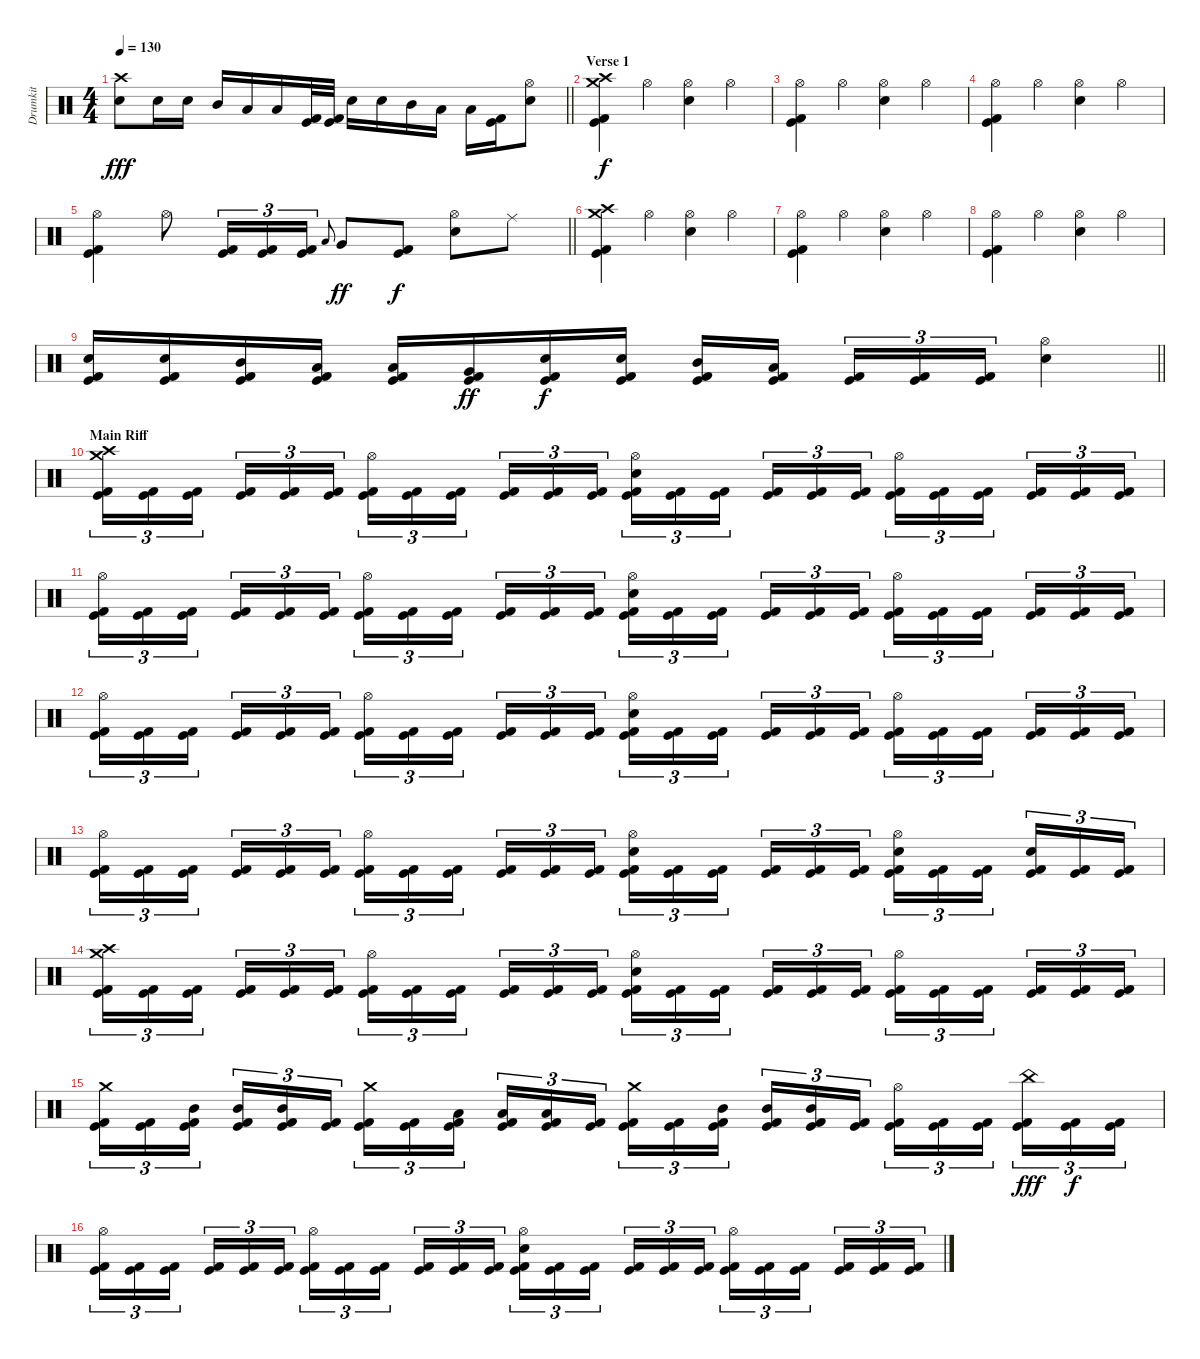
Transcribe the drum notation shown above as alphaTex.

\track ("Drumkit" "Drumkit") {instrument percussion}
\staff {score}
\articulation defaults
\ts (4 4)
\tempo 130
\clef neutral
\barLineRight lightlight
\ks c
("Crash high (hit)" "Electric Snare (hit)").8{dy fff} "Electric Snare (hit)".16 "Electric Snare (hit)".16 "Mid Tom (hit)".16 "Low Tom (hit)".16 "Low Tom (hit)".16 ("Kick (hit)" "Kick (hit) 2").32 ("Kick (hit)" "Kick (hit) 2").32 "Electric Snare (hit)".16 "Electric Snare (hit)".16 "Mid Tom (hit)".16 "Low Tom (hit)".16 "Low Tom (hit)".16 ("Kick (hit)" "Kick (hit) 2").16 ("Hi-Hat (open)" "Electric Snare (hit)").8 |
\section ("" "Verse 1")
("Crash high (hit)" "Crash medium (hit)" "Kick (hit)" "Kick (hit) 2").4{dy f} "Hi-Hat (open)".4 ("Hi-Hat (open)" "Electric Snare (hit)").4 "Hi-Hat (open)".4 |
("Hi-Hat (open)" "Kick (hit)" "Kick (hit) 2").4 "Hi-Hat (open)".4 ("Hi-Hat (open)" "Electric Snare (hit)").4 "Hi-Hat (open)".4 |
("Hi-Hat (open)" "Kick (hit)" "Kick (hit) 2").4 "Hi-Hat (open)".4 ("Hi-Hat (open)" "Electric Snare (hit)").4 "Hi-Hat (open)".4 |
\barLineRight lightlight
("Hi-Hat (open)" "Kick (hit)" "Kick (hit) 2").4 "Hi-Hat (open)".8 ("Kick (hit)" "Kick (hit) 2").16{tu (3 2)} ("Kick (hit)" "Kick (hit) 2").16{tu (3 2)} ("Kick (hit)" "Kick (hit) 2").16{tu (3 2)} "Low Tom (hit)".8{gr onbeat} "Very Low Tom (hit)".8{dy ff} ("Kick (hit)" "Kick (hit) 2").8{dy f} ("Hi-Hat (open)" "Electric Snare (hit)").8 "Ride (middle)".8 |
("Crash high (hit)" "Crash medium (hit)" "Kick (hit)" "Kick (hit) 2").4 "Hi-Hat (open)".4 ("Hi-Hat (open)" "Electric Snare (hit)").4 "Hi-Hat (open)".4 |
("Hi-Hat (open)" "Kick (hit)" "Kick (hit) 2").4 "Hi-Hat (open)".4 ("Hi-Hat (open)" "Electric Snare (hit)").4 "Hi-Hat (open)".4 |
("Hi-Hat (open)" "Kick (hit)" "Kick (hit) 2").4 "Hi-Hat (open)".4 ("Hi-Hat (open)" "Electric Snare (hit)").4 "Hi-Hat (open)".4 |
\barLineRight lightlight
("Electric Snare (hit)" "Kick (hit)" "Kick (hit) 2").16 ("Electric Snare (hit)" "Kick (hit)" "Kick (hit) 2").16 ("Mid Tom (hit)" "Kick (hit)" "Kick (hit) 2").16 ("Low Tom (hit)" "Kick (hit)" "Kick (hit) 2").16 ("Low Tom (hit)" "Kick (hit)" "Kick (hit) 2").16 ("Very Low Tom (hit)" "Kick (hit)" "Kick (hit) 2").16{dy ff} ("Electric Snare (hit)" "Kick (hit)" "Kick (hit) 2").16{dy f} ("Electric Snare (hit)" "Kick (hit)" "Kick (hit) 2").16 ("Mid Tom (hit)" "Kick (hit)" "Kick (hit) 2").16 ("Low Tom (hit)" "Kick (hit)" "Kick (hit) 2").16{beam splitsecondary} ("Kick (hit)" "Kick (hit) 2").16{tu (3 2)} ("Kick (hit)" "Kick (hit) 2").16{tu (3 2)} ("Kick (hit)" "Kick (hit) 2").16{tu (3 2)} ("Hi-Hat (open)" "Electric Snare (hit)").4 |
\section ("" "Main Riff")
("Crash high (hit)" "Crash medium (hit)" "Kick (hit)" "Kick (hit) 2").16{tu (3 2)} ("Kick (hit)" "Kick (hit) 2").16{tu (3 2)} ("Kick (hit)" "Kick (hit) 2").16{tu (3 2) beam splitsecondary} ("Kick (hit)" "Kick (hit) 2").16{tu (3 2)} ("Kick (hit)" "Kick (hit) 2").16{tu (3 2)} ("Kick (hit)" "Kick (hit) 2").16{tu (3 2)} ("Hi-Hat (open)" "Kick (hit)" "Kick (hit) 2").16{tu (3 2)} ("Kick (hit)" "Kick (hit) 2").16{tu (3 2)} ("Kick (hit)" "Kick (hit) 2").16{tu (3 2) beam splitsecondary} ("Kick (hit)" "Kick (hit) 2").16{tu (3 2)} ("Kick (hit)" "Kick (hit) 2").16{tu (3 2)} ("Kick (hit)" "Kick (hit) 2").16{tu (3 2)} ("Hi-Hat (open)" "Electric Snare (hit)" "Kick (hit)" "Kick (hit) 2").16{tu (3 2)} ("Kick (hit)" "Kick (hit) 2").16{tu (3 2)} ("Kick (hit)" "Kick (hit) 2").16{tu (3 2) beam splitsecondary} ("Kick (hit)" "Kick (hit) 2").16{tu (3 2)} ("Kick (hit)" "Kick (hit) 2").16{tu (3 2)} ("Kick (hit)" "Kick (hit) 2").16{tu (3 2)} ("Hi-Hat (open)" "Kick (hit)" "Kick (hit) 2").16{tu (3 2)} ("Kick (hit)" "Kick (hit) 2").16{tu (3 2)} ("Kick (hit)" "Kick (hit) 2").16{tu (3 2) beam splitsecondary} ("Kick (hit)" "Kick (hit) 2").16{tu (3 2)} ("Kick (hit)" "Kick (hit) 2").16{tu (3 2)} ("Kick (hit)" "Kick (hit) 2").16{tu (3 2)} |
("Hi-Hat (open)" "Kick (hit)" "Kick (hit) 2").16{tu (3 2)} ("Kick (hit)" "Kick (hit) 2").16{tu (3 2)} ("Kick (hit)" "Kick (hit) 2").16{tu (3 2) beam splitsecondary} ("Kick (hit)" "Kick (hit) 2").16{tu (3 2)} ("Kick (hit)" "Kick (hit) 2").16{tu (3 2)} ("Kick (hit)" "Kick (hit) 2").16{tu (3 2)} ("Hi-Hat (open)" "Kick (hit)" "Kick (hit) 2").16{tu (3 2)} ("Kick (hit)" "Kick (hit) 2").16{tu (3 2)} ("Kick (hit)" "Kick (hit) 2").16{tu (3 2) beam splitsecondary} ("Kick (hit)" "Kick (hit) 2").16{tu (3 2)} ("Kick (hit)" "Kick (hit) 2").16{tu (3 2)} ("Kick (hit)" "Kick (hit) 2").16{tu (3 2)} ("Hi-Hat (open)" "Electric Snare (hit)" "Kick (hit)" "Kick (hit) 2").16{tu (3 2)} ("Kick (hit)" "Kick (hit) 2").16{tu (3 2)} ("Kick (hit)" "Kick (hit) 2").16{tu (3 2) beam splitsecondary} ("Kick (hit)" "Kick (hit) 2").16{tu (3 2)} ("Kick (hit)" "Kick (hit) 2").16{tu (3 2)} ("Kick (hit)" "Kick (hit) 2").16{tu (3 2)} ("Hi-Hat (open)" "Kick (hit)" "Kick (hit) 2").16{tu (3 2)} ("Kick (hit)" "Kick (hit) 2").16{tu (3 2)} ("Kick (hit)" "Kick (hit) 2").16{tu (3 2) beam splitsecondary} ("Kick (hit)" "Kick (hit) 2").16{tu (3 2)} ("Kick (hit)" "Kick (hit) 2").16{tu (3 2)} ("Kick (hit)" "Kick (hit) 2").16{tu (3 2)} |
("Hi-Hat (open)" "Kick (hit)" "Kick (hit) 2").16{tu (3 2)} ("Kick (hit)" "Kick (hit) 2").16{tu (3 2)} ("Kick (hit)" "Kick (hit) 2").16{tu (3 2) beam splitsecondary} ("Kick (hit)" "Kick (hit) 2").16{tu (3 2)} ("Kick (hit)" "Kick (hit) 2").16{tu (3 2)} ("Kick (hit)" "Kick (hit) 2").16{tu (3 2)} ("Hi-Hat (open)" "Kick (hit)" "Kick (hit) 2").16{tu (3 2)} ("Kick (hit)" "Kick (hit) 2").16{tu (3 2)} ("Kick (hit)" "Kick (hit) 2").16{tu (3 2) beam splitsecondary} ("Kick (hit)" "Kick (hit) 2").16{tu (3 2)} ("Kick (hit)" "Kick (hit) 2").16{tu (3 2)} ("Kick (hit)" "Kick (hit) 2").16{tu (3 2)} ("Hi-Hat (open)" "Electric Snare (hit)" "Kick (hit)" "Kick (hit) 2").16{tu (3 2)} ("Kick (hit)" "Kick (hit) 2").16{tu (3 2)} ("Kick (hit)" "Kick (hit) 2").16{tu (3 2) beam splitsecondary} ("Kick (hit)" "Kick (hit) 2").16{tu (3 2)} ("Kick (hit)" "Kick (hit) 2").16{tu (3 2)} ("Kick (hit)" "Kick (hit) 2").16{tu (3 2)} ("Hi-Hat (open)" "Kick (hit)" "Kick (hit) 2").16{tu (3 2)} ("Kick (hit)" "Kick (hit) 2").16{tu (3 2)} ("Kick (hit)" "Kick (hit) 2").16{tu (3 2) beam splitsecondary} ("Kick (hit)" "Kick (hit) 2").16{tu (3 2)} ("Kick (hit)" "Kick (hit) 2").16{tu (3 2)} ("Kick (hit)" "Kick (hit) 2").16{tu (3 2)} |
("Hi-Hat (open)" "Kick (hit)" "Kick (hit) 2").16{tu (3 2)} ("Kick (hit)" "Kick (hit) 2").16{tu (3 2)} ("Kick (hit)" "Kick (hit) 2").16{tu (3 2) beam splitsecondary} ("Kick (hit)" "Kick (hit) 2").16{tu (3 2)} ("Kick (hit)" "Kick (hit) 2").16{tu (3 2)} ("Kick (hit)" "Kick (hit) 2").16{tu (3 2)} ("Hi-Hat (open)" "Kick (hit)" "Kick (hit) 2").16{tu (3 2)} ("Kick (hit)" "Kick (hit) 2").16{tu (3 2)} ("Kick (hit)" "Kick (hit) 2").16{tu (3 2) beam splitsecondary} ("Kick (hit)" "Kick (hit) 2").16{tu (3 2)} ("Kick (hit)" "Kick (hit) 2").16{tu (3 2)} ("Kick (hit)" "Kick (hit) 2").16{tu (3 2)} ("Hi-Hat (open)" "Electric Snare (hit)" "Kick (hit)" "Kick (hit) 2").16{tu (3 2)} ("Kick (hit)" "Kick (hit) 2").16{tu (3 2)} ("Kick (hit)" "Kick (hit) 2").16{tu (3 2) beam splitsecondary} ("Kick (hit)" "Kick (hit) 2").16{tu (3 2)} ("Kick (hit)" "Kick (hit) 2").16{tu (3 2)} ("Kick (hit)" "Kick (hit) 2").16{tu (3 2)} ("Hi-Hat (open)" "Electric Snare (hit)" "Kick (hit)" "Kick (hit) 2").16{tu (3 2)} ("Kick (hit)" "Kick (hit) 2").16{tu (3 2)} ("Kick (hit)" "Kick (hit) 2").16{tu (3 2) beam splitsecondary} ("Electric Snare (hit)" "Kick (hit)" "Kick (hit) 2").16{tu (3 2)} ("Kick (hit)" "Kick (hit) 2").16{tu (3 2)} ("Kick (hit)" "Kick (hit) 2").16{tu (3 2)} |
("Crash high (hit)" "Crash medium (hit)" "Kick (hit)" "Kick (hit) 2").16{tu (3 2)} ("Kick (hit)" "Kick (hit) 2").16{tu (3 2)} ("Kick (hit)" "Kick (hit) 2").16{tu (3 2) beam splitsecondary} ("Kick (hit)" "Kick (hit) 2").16{tu (3 2)} ("Kick (hit)" "Kick (hit) 2").16{tu (3 2)} ("Kick (hit)" "Kick (hit) 2").16{tu (3 2)} ("Hi-Hat (open)" "Kick (hit)" "Kick (hit) 2").16{tu (3 2)} ("Kick (hit)" "Kick (hit) 2").16{tu (3 2)} ("Kick (hit)" "Kick (hit) 2").16{tu (3 2) beam splitsecondary} ("Kick (hit)" "Kick (hit) 2").16{tu (3 2)} ("Kick (hit)" "Kick (hit) 2").16{tu (3 2)} ("Kick (hit)" "Kick (hit) 2").16{tu (3 2)} ("Hi-Hat (open)" "Electric Snare (hit)" "Kick (hit)" "Kick (hit) 2").16{tu (3 2)} ("Kick (hit)" "Kick (hit) 2").16{tu (3 2)} ("Kick (hit)" "Kick (hit) 2").16{tu (3 2) beam splitsecondary} ("Kick (hit)" "Kick (hit) 2").16{tu (3 2)} ("Kick (hit)" "Kick (hit) 2").16{tu (3 2)} ("Kick (hit)" "Kick (hit) 2").16{tu (3 2)} ("Hi-Hat (open)" "Kick (hit)" "Kick (hit) 2").16{tu (3 2)} ("Kick (hit)" "Kick (hit) 2").16{tu (3 2)} ("Kick (hit)" "Kick (hit) 2").16{tu (3 2) beam splitsecondary} ("Kick (hit)" "Kick (hit) 2").16{tu (3 2)} ("Kick (hit)" "Kick (hit) 2").16{tu (3 2)} ("Kick (hit)" "Kick (hit) 2").16{tu (3 2)} |
("Crash medium (hit)" "Kick (hit)" "Kick (hit) 2").16{tu (3 2)} ("Kick (hit)" "Kick (hit) 2").16{tu (3 2)} ("Mid Tom (hit)" "Kick (hit)" "Kick (hit) 2").16{tu (3 2) beam splitsecondary} ("Mid Tom (hit)" "Kick (hit)" "Kick (hit) 2").16{tu (3 2)} ("Mid Tom (hit)" "Kick (hit)" "Kick (hit) 2").16{tu (3 2)} ("Kick (hit)" "Kick (hit) 2").16{tu (3 2)} ("Crash medium (hit)" "Kick (hit)" "Kick (hit) 2").16{tu (3 2)} ("Kick (hit)" "Kick (hit) 2").16{tu (3 2)} ("Low Tom (hit)" "Kick (hit)" "Kick (hit) 2").16{tu (3 2) beam splitsecondary} ("Low Tom (hit)" "Kick (hit)" "Kick (hit) 2").16{tu (3 2)} ("Low Tom (hit)" "Kick (hit)" "Kick (hit) 2").16{tu (3 2)} ("Kick (hit)" "Kick (hit) 2").16{tu (3 2)} ("Crash medium (hit)" "Kick (hit)" "Kick (hit) 2").16{tu (3 2)} ("Kick (hit)" "Kick (hit) 2").16{tu (3 2)} ("Mid Tom (hit)" "Kick (hit)" "Kick (hit) 2").16{tu (3 2) beam splitsecondary} ("Mid Tom (hit)" "Kick (hit)" "Kick (hit) 2").16{tu (3 2)} ("Mid Tom (hit)" "Kick (hit)" "Kick (hit) 2").16{tu (3 2)} ("Kick (hit)" "Kick (hit) 2").16{tu (3 2)} ("Hi-Hat (open)" "Kick (hit)" "Kick (hit) 2").16{tu (3 2)} ("Kick (hit)" "Kick (hit) 2").16{tu (3 2)} ("Kick (hit)" "Kick (hit) 2").16{tu (3 2) beam splitsecondary} ("China (hit)" "Kick (hit)" "Kick (hit) 2").16{tu (3 2) dy fff} ("Kick (hit)" "Kick (hit) 2").16{tu (3 2) dy f} ("Kick (hit)" "Kick (hit) 2").16{tu (3 2)} |
("Hi-Hat (open)" "Kick (hit)" "Kick (hit) 2").16{tu (3 2)} ("Kick (hit)" "Kick (hit) 2").16{tu (3 2)} ("Kick (hit)" "Kick (hit) 2").16{tu (3 2) beam splitsecondary} ("Kick (hit)" "Kick (hit) 2").16{tu (3 2)} ("Kick (hit)" "Kick (hit) 2").16{tu (3 2)} ("Kick (hit)" "Kick (hit) 2").16{tu (3 2)} ("Hi-Hat (open)" "Kick (hit)" "Kick (hit) 2").16{tu (3 2)} ("Kick (hit)" "Kick (hit) 2").16{tu (3 2)} ("Kick (hit)" "Kick (hit) 2").16{tu (3 2) beam splitsecondary} ("Kick (hit)" "Kick (hit) 2").16{tu (3 2)} ("Kick (hit)" "Kick (hit) 2").16{tu (3 2)} ("Kick (hit)" "Kick (hit) 2").16{tu (3 2)} ("Hi-Hat (open)" "Electric Snare (hit)" "Kick (hit)" "Kick (hit) 2").16{tu (3 2)} ("Kick (hit)" "Kick (hit) 2").16{tu (3 2)} ("Kick (hit)" "Kick (hit) 2").16{tu (3 2) beam splitsecondary} ("Kick (hit)" "Kick (hit) 2").16{tu (3 2)} ("Kick (hit)" "Kick (hit) 2").16{tu (3 2)} ("Kick (hit)" "Kick (hit) 2").16{tu (3 2)} ("Hi-Hat (open)" "Kick (hit)" "Kick (hit) 2").16{tu (3 2)} ("Kick (hit)" "Kick (hit) 2").16{tu (3 2)} ("Kick (hit)" "Kick (hit) 2").16{tu (3 2) beam splitsecondary} ("Kick (hit)" "Kick (hit) 2").16{tu (3 2)} ("Kick (hit)" "Kick (hit) 2").16{tu (3 2)} ("Kick (hit)" "Kick (hit) 2").16{tu (3 2)}
